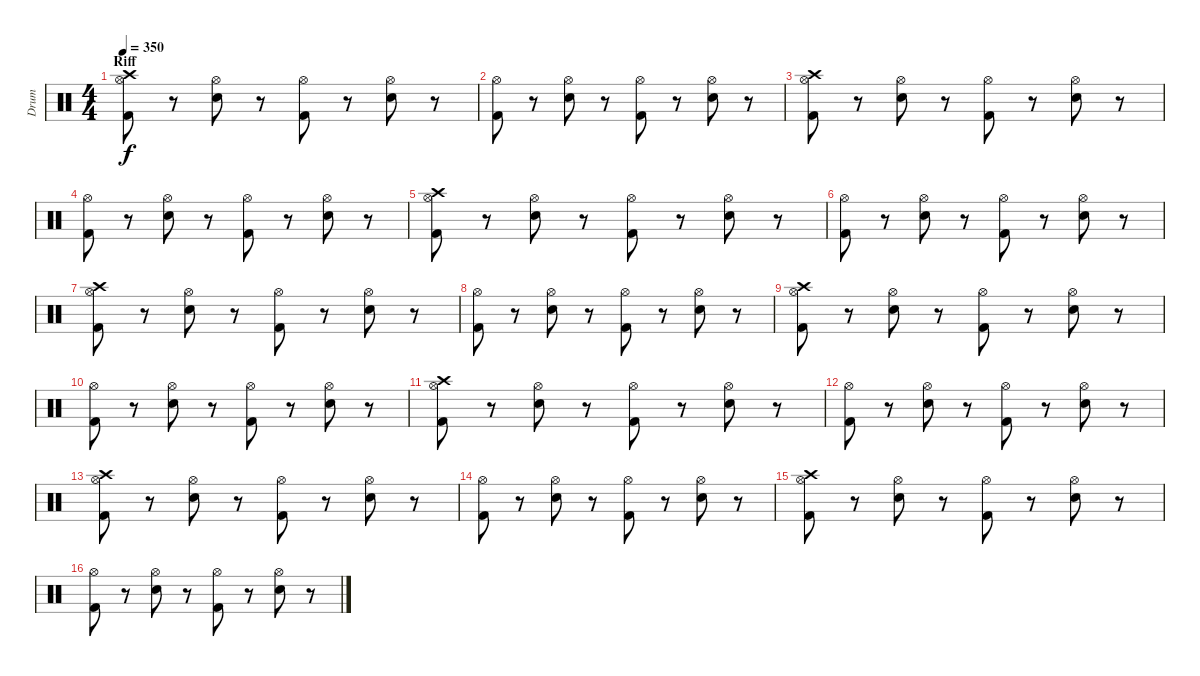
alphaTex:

\track ("Drum" "Drum") {instrument percussion}
\staff {score}
\articulation defaults
\ts (4 4)
\section ("" "Riff")
\tempo 350
\clef neutral
\ks c
("Crash high (hit)" "Hi-Hat (open)" "Kick (hit) 2").8{dy f} r.8 ("Hi-Hat (open)" "Electric Snare (hit)").8 r.8 ("Hi-Hat (open)" "Kick (hit) 2").8 r.8 ("Hi-Hat (open)" "Electric Snare (hit)").8 r.8 |
("Hi-Hat (open)" "Kick (hit) 2").8 r.8 ("Hi-Hat (open)" "Electric Snare (hit)").8 r.8 ("Hi-Hat (open)" "Kick (hit) 2").8 r.8 ("Hi-Hat (open)" "Electric Snare (hit)").8 r.8 |
("Crash high (hit)" "Hi-Hat (open)" "Kick (hit) 2").8 r.8 ("Hi-Hat (open)" "Electric Snare (hit)").8 r.8 ("Hi-Hat (open)" "Kick (hit) 2").8 r.8 ("Hi-Hat (open)" "Electric Snare (hit)").8 r.8 |
("Hi-Hat (open)" "Kick (hit) 2").8 r.8 ("Hi-Hat (open)" "Electric Snare (hit)").8 r.8 ("Hi-Hat (open)" "Kick (hit) 2").8 r.8 ("Hi-Hat (open)" "Electric Snare (hit)").8 r.8 |
("Crash high (hit)" "Hi-Hat (open)" "Kick (hit) 2").8 r.8 ("Hi-Hat (open)" "Electric Snare (hit)").8 r.8 ("Hi-Hat (open)" "Kick (hit) 2").8 r.8 ("Hi-Hat (open)" "Electric Snare (hit)").8 r.8 |
("Hi-Hat (open)" "Kick (hit) 2").8 r.8 ("Hi-Hat (open)" "Electric Snare (hit)").8 r.8 ("Hi-Hat (open)" "Kick (hit) 2").8 r.8 ("Hi-Hat (open)" "Electric Snare (hit)").8 r.8 |
("Crash high (hit)" "Hi-Hat (open)" "Kick (hit) 2").8 r.8 ("Hi-Hat (open)" "Electric Snare (hit)").8 r.8 ("Hi-Hat (open)" "Kick (hit) 2").8 r.8 ("Hi-Hat (open)" "Electric Snare (hit)").8 r.8 |
("Hi-Hat (open)" "Kick (hit) 2").8 r.8 ("Hi-Hat (open)" "Electric Snare (hit)").8 r.8 ("Hi-Hat (open)" "Kick (hit) 2").8 r.8 ("Hi-Hat (open)" "Electric Snare (hit)").8 r.8 |
("Crash high (hit)" "Hi-Hat (open)" "Kick (hit) 2").8 r.8 ("Hi-Hat (open)" "Electric Snare (hit)").8 r.8 ("Hi-Hat (open)" "Kick (hit) 2").8 r.8 ("Hi-Hat (open)" "Electric Snare (hit)").8 r.8 |
("Hi-Hat (open)" "Kick (hit) 2").8 r.8 ("Hi-Hat (open)" "Electric Snare (hit)").8 r.8 ("Hi-Hat (open)" "Kick (hit) 2").8 r.8 ("Hi-Hat (open)" "Electric Snare (hit)").8 r.8 |
("Crash high (hit)" "Hi-Hat (open)" "Kick (hit) 2").8 r.8 ("Hi-Hat (open)" "Electric Snare (hit)").8 r.8 ("Hi-Hat (open)" "Kick (hit) 2").8 r.8 ("Hi-Hat (open)" "Electric Snare (hit)").8 r.8 |
("Hi-Hat (open)" "Kick (hit) 2").8 r.8 ("Hi-Hat (open)" "Electric Snare (hit)").8 r.8 ("Hi-Hat (open)" "Kick (hit) 2").8 r.8 ("Hi-Hat (open)" "Electric Snare (hit)").8 r.8 |
("Crash high (hit)" "Hi-Hat (open)" "Kick (hit) 2").8 r.8 ("Hi-Hat (open)" "Electric Snare (hit)").8 r.8 ("Hi-Hat (open)" "Kick (hit) 2").8 r.8 ("Hi-Hat (open)" "Electric Snare (hit)").8 r.8 |
("Hi-Hat (open)" "Kick (hit) 2").8 r.8 ("Hi-Hat (open)" "Electric Snare (hit)").8 r.8 ("Hi-Hat (open)" "Kick (hit) 2").8 r.8 ("Hi-Hat (open)" "Electric Snare (hit)").8 r.8 |
("Crash high (hit)" "Hi-Hat (open)" "Kick (hit) 2").8 r.8 ("Hi-Hat (open)" "Electric Snare (hit)").8 r.8 ("Hi-Hat (open)" "Kick (hit) 2").8 r.8 ("Hi-Hat (open)" "Electric Snare (hit)").8 r.8 |
("Hi-Hat (open)" "Kick (hit) 2").8 r.8 ("Hi-Hat (open)" "Electric Snare (hit)").8 r.8 ("Hi-Hat (open)" "Kick (hit) 2").8 r.8 ("Hi-Hat (open)" "Electric Snare (hit)").8 r.8
